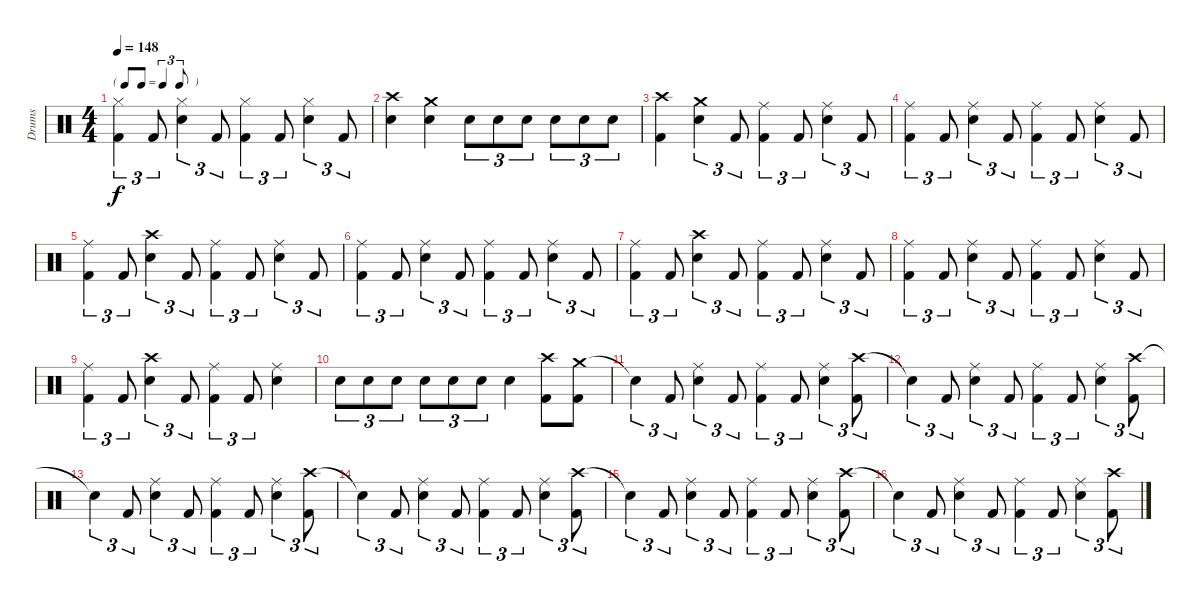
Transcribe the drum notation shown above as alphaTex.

\track ("Drums" "Drums") {instrument percussion}
\staff {score}
\articulation defaults
\ts (4 4)
\tf triplet8th
\tempo 148
\clef neutral
\ks c
("Hi-Hat (closed)" "Kick (hit) 2").4{tu (3 2) dy f} "Kick (hit) 2".8{tu (3 2)} ("Hi-Hat (closed)" "Snare (hit) 2").4{tu (3 2)} "Kick (hit) 2".8{tu (3 2)} ("Hi-Hat (closed)" "Kick (hit) 2").4{tu (3 2)} "Kick (hit) 2".8{tu (3 2)} ("Hi-Hat (closed)" "Snare (hit) 2").4{tu (3 2)} "Kick (hit) 2".8{tu (3 2)} |
("Crash high (hit)" "Snare (hit) 2").4 ("Crash medium (hit)" "Snare (hit) 2").4 "Snare (hit) 2".8{tu (3 2)} "Snare (hit) 2".8{tu (3 2)} "Snare (hit) 2".8{tu (3 2)} "Snare (hit) 2".8{tu (3 2)} "Snare (hit) 2".8{tu (3 2)} "Snare (hit) 2".8{tu (3 2)} |
("Crash high (hit)" "Kick (hit) 2").4 ("Crash medium (hit)" "Snare (hit) 2").4{tu (3 2)} "Kick (hit) 2".8{tu (3 2)} ("Ride (middle)" "Kick (hit) 2").4{tu (3 2)} "Kick (hit) 2".8{tu (3 2)} ("Ride (middle)" "Snare (hit) 2").4{tu (3 2)} "Kick (hit) 2".8{tu (3 2)} |
("Ride (middle)" "Kick (hit) 2").4{tu (3 2)} "Kick (hit) 2".8{tu (3 2)} ("Ride (middle)" "Snare (hit) 2").4{tu (3 2)} "Kick (hit) 2".8{tu (3 2)} ("Ride (middle)" "Kick (hit) 2").4{tu (3 2)} "Kick (hit) 2".8{tu (3 2)} ("Ride (middle)" "Snare (hit) 2").4{tu (3 2)} "Kick (hit) 2".8{tu (3 2)} |
("Ride (middle)" "Kick (hit) 2").4{tu (3 2)} "Kick (hit) 2".8{tu (3 2)} ("Crash high (hit)" "Snare (hit) 2").4{tu (3 2)} "Kick (hit) 2".8{tu (3 2)} ("Ride (middle)" "Kick (hit) 2").4{tu (3 2)} "Kick (hit) 2".8{tu (3 2)} ("Ride (middle)" "Snare (hit) 2").4{tu (3 2)} "Kick (hit) 2".8{tu (3 2)} |
("Ride (middle)" "Kick (hit) 2").4{tu (3 2)} "Kick (hit) 2".8{tu (3 2)} ("Ride (middle)" "Snare (hit) 2").4{tu (3 2)} "Kick (hit) 2".8{tu (3 2)} ("Ride (middle)" "Kick (hit) 2").4{tu (3 2)} "Kick (hit) 2".8{tu (3 2)} ("Ride (middle)" "Snare (hit) 2").4{tu (3 2)} "Kick (hit) 2".8{tu (3 2)} |
("Ride (middle)" "Kick (hit) 2").4{tu (3 2)} "Kick (hit) 2".8{tu (3 2)} ("Crash high (hit)" "Snare (hit) 2").4{tu (3 2)} "Kick (hit) 2".8{tu (3 2)} ("Ride (middle)" "Kick (hit) 2").4{tu (3 2)} "Kick (hit) 2".8{tu (3 2)} ("Ride (middle)" "Snare (hit) 2").4{tu (3 2)} "Kick (hit) 2".8{tu (3 2)} |
("Ride (middle)" "Kick (hit) 2").4{tu (3 2)} "Kick (hit) 2".8{tu (3 2)} ("Ride (middle)" "Snare (hit) 2").4{tu (3 2)} "Kick (hit) 2".8{tu (3 2)} ("Ride (middle)" "Kick (hit) 2").4{tu (3 2)} "Kick (hit) 2".8{tu (3 2)} ("Ride (middle)" "Snare (hit) 2").4{tu (3 2)} "Kick (hit) 2".8{tu (3 2)} |
("Ride (middle)" "Kick (hit) 2").4{tu (3 2)} "Kick (hit) 2".8{tu (3 2)} ("Crash high (hit)" "Snare (hit) 2").4{tu (3 2)} "Kick (hit) 2".8{tu (3 2)} ("Ride (middle)" "Kick (hit) 2").4{tu (3 2)} "Kick (hit) 2".8{tu (3 2)} ("Ride (middle)" "Snare (hit) 2").4 |
"Snare (hit) 2".8{tu (3 2)} "Snare (hit) 2".8{tu (3 2)} "Snare (hit) 2".8{tu (3 2)} "Snare (hit) 2".8{tu (3 2)} "Snare (hit) 2".8{tu (3 2)} "Snare (hit) 2".8{tu (3 2)} "Snare (hit) 2".4 ("Crash high (hit)" "Kick (hit) 2").8 ("Crash medium (hit)" "Kick (hit) 2").8 |
"Snare (hit)"{t}.4{tu (3 2)} "Kick (hit) 2".8{tu (3 2)} ("Ride (middle)" "Snare (hit) 2").4{tu (3 2)} "Kick (hit) 2".8{tu (3 2)} ("Ride (middle)" "Kick (hit) 2").4{tu (3 2)} "Kick (hit) 2".8{tu (3 2)} ("Ride (middle)" "Snare (hit) 2").4{tu (3 2)} ("Crash high (hit)" "Kick (hit) 2").8{tu (3 2)} |
"Snare (hit)"{t}.4{tu (3 2)} "Kick (hit) 2".8{tu (3 2)} ("Ride (middle)" "Snare (hit) 2").4{tu (3 2)} "Kick (hit) 2".8{tu (3 2)} ("Ride (middle)" "Kick (hit) 2").4{tu (3 2)} "Kick (hit) 2".8{tu (3 2)} ("Ride (middle)" "Snare (hit) 2").4{tu (3 2)} ("Crash high (hit)" "Kick (hit) 2").8{tu (3 2)} |
"Snare (hit)"{t}.4{tu (3 2)} "Kick (hit) 2".8{tu (3 2)} ("Ride (middle)" "Snare (hit) 2").4{tu (3 2)} "Kick (hit) 2".8{tu (3 2)} ("Ride (middle)" "Kick (hit) 2").4{tu (3 2)} "Kick (hit) 2".8{tu (3 2)} ("Ride (middle)" "Snare (hit) 2").4{tu (3 2)} ("Crash high (hit)" "Kick (hit) 2").8{tu (3 2)} |
"Snare (hit)"{t}.4{tu (3 2)} "Kick (hit) 2".8{tu (3 2)} ("Ride (middle)" "Snare (hit) 2").4{tu (3 2)} "Kick (hit) 2".8{tu (3 2)} ("Ride (middle)" "Kick (hit) 2").4{tu (3 2)} "Kick (hit) 2".8{tu (3 2)} ("Ride (middle)" "Snare (hit) 2").4{tu (3 2)} ("Crash high (hit)" "Kick (hit) 2").8{tu (3 2)} |
"Snare (hit)"{t}.4{tu (3 2)} "Kick (hit) 2".8{tu (3 2)} ("Ride (middle)" "Snare (hit) 2").4{tu (3 2)} "Kick (hit) 2".8{tu (3 2)} ("Ride (middle)" "Kick (hit) 2").4{tu (3 2)} "Kick (hit) 2".8{tu (3 2)} ("Ride (middle)" "Snare (hit) 2").4{tu (3 2)} ("Crash high (hit)" "Kick (hit) 2").8{tu (3 2)} |
"Snare (hit)"{t}.4{tu (3 2)} "Kick (hit) 2".8{tu (3 2)} ("Ride (middle)" "Snare (hit) 2").4{tu (3 2)} "Kick (hit) 2".8{tu (3 2)} ("Ride (middle)" "Kick (hit) 2").4{tu (3 2)} "Kick (hit) 2".8{tu (3 2)} ("Ride (middle)" "Snare (hit) 2").4{tu (3 2)} ("Crash high (hit)" "Kick (hit) 2").8{tu (3 2)}
